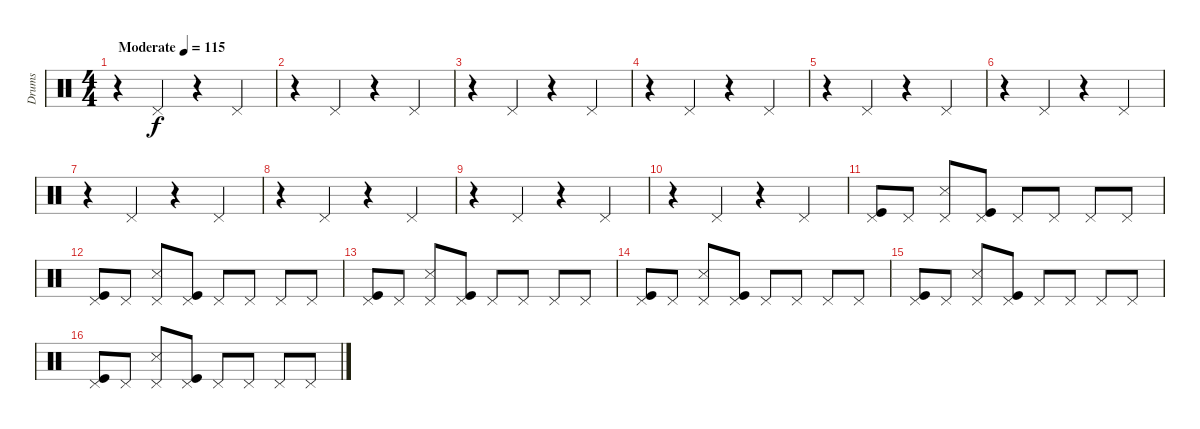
\track ("Drums" "Drums") {instrument percussion}
\staff {score}
\articulation defaults
\ts (4 4)
\tempo (115 "Moderate")
\clef neutral
\ks c
r.4{dy f} "Pedal Hi-Hat (hit)".4 r.4 "Pedal Hi-Hat (hit)".4 |
r.4 "Pedal Hi-Hat (hit)".4 r.4 "Pedal Hi-Hat (hit)".4 |
r.4 "Pedal Hi-Hat (hit)".4 r.4 "Pedal Hi-Hat (hit)".4 |
r.4 "Pedal Hi-Hat (hit)".4 r.4 "Pedal Hi-Hat (hit)".4 |
r.4 "Pedal Hi-Hat (hit)".4 r.4 "Pedal Hi-Hat (hit)".4 |
r.4 "Pedal Hi-Hat (hit)".4 r.4 "Pedal Hi-Hat (hit)".4 |
r.4 "Pedal Hi-Hat (hit)".4 r.4 "Pedal Hi-Hat (hit)".4 |
r.4 "Pedal Hi-Hat (hit)".4 r.4 "Pedal Hi-Hat (hit)".4 |
r.4 "Pedal Hi-Hat (hit)".4 r.4 "Pedal Hi-Hat (hit)".4 |
r.4 "Pedal Hi-Hat (hit)".4 r.4 "Pedal Hi-Hat (hit)".4 |
("Pedal Hi-Hat (hit)" "Kick (hit)").8 "Pedal Hi-Hat (hit)".8 ("Pedal Hi-Hat (hit)" "Snare (side stick) 3").8 ("Pedal Hi-Hat (hit)" "Kick (hit)").8 "Pedal Hi-Hat (hit)".8 "Pedal Hi-Hat (hit)".8 "Pedal Hi-Hat (hit)".8 "Pedal Hi-Hat (hit)".8 |
("Pedal Hi-Hat (hit)" "Kick (hit)").8 "Pedal Hi-Hat (hit)".8 ("Pedal Hi-Hat (hit)" "Snare (side stick) 3").8 ("Pedal Hi-Hat (hit)" "Kick (hit)").8 "Pedal Hi-Hat (hit)".8 "Pedal Hi-Hat (hit)".8 "Pedal Hi-Hat (hit)".8 "Pedal Hi-Hat (hit)".8 |
("Pedal Hi-Hat (hit)" "Kick (hit)").8 "Pedal Hi-Hat (hit)".8 ("Pedal Hi-Hat (hit)" "Snare (side stick) 3").8 ("Pedal Hi-Hat (hit)" "Kick (hit)").8 "Pedal Hi-Hat (hit)".8 "Pedal Hi-Hat (hit)".8 "Pedal Hi-Hat (hit)".8 "Pedal Hi-Hat (hit)".8 |
("Pedal Hi-Hat (hit)" "Kick (hit)").8 "Pedal Hi-Hat (hit)".8 ("Pedal Hi-Hat (hit)" "Snare (side stick) 3").8 ("Pedal Hi-Hat (hit)" "Kick (hit)").8 "Pedal Hi-Hat (hit)".8 "Pedal Hi-Hat (hit)".8 "Pedal Hi-Hat (hit)".8 "Pedal Hi-Hat (hit)".8 |
("Pedal Hi-Hat (hit)" "Kick (hit)").8 "Pedal Hi-Hat (hit)".8 ("Pedal Hi-Hat (hit)" "Snare (side stick) 3").8 ("Pedal Hi-Hat (hit)" "Kick (hit)").8 "Pedal Hi-Hat (hit)".8 "Pedal Hi-Hat (hit)".8 "Pedal Hi-Hat (hit)".8 "Pedal Hi-Hat (hit)".8 |
("Pedal Hi-Hat (hit)" "Kick (hit)").8 "Pedal Hi-Hat (hit)".8 ("Pedal Hi-Hat (hit)" "Snare (side stick) 3").8 ("Pedal Hi-Hat (hit)" "Kick (hit)").8 "Pedal Hi-Hat (hit)".8 "Pedal Hi-Hat (hit)".8 "Pedal Hi-Hat (hit)".8 "Pedal Hi-Hat (hit)".8
